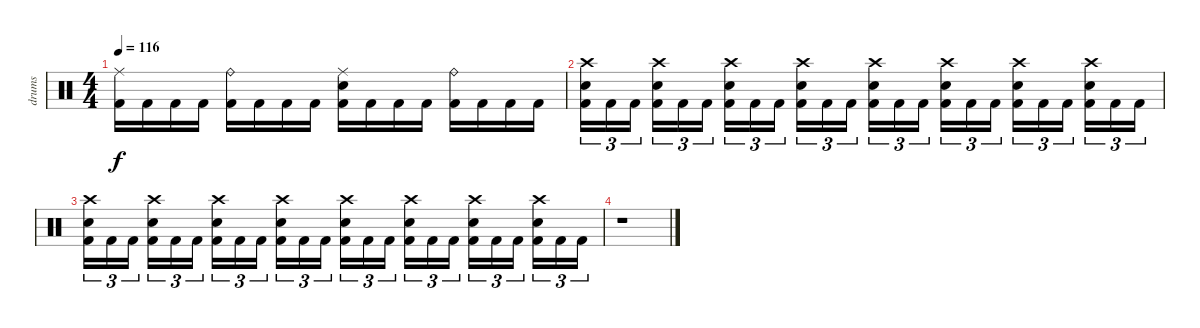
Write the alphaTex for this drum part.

\track ("drums" "drums") {instrument percussion}
\staff {score}
\articulation defaults
\ts (4 4)
\tempo 116
\clef neutral
\ks c
("Ride (middle)" "Kick (hit) 2").16{dy f} "Kick (hit) 2".16 "Kick (hit) 2".16 "Kick (hit) 2".16 ("Ride (bell)" "Kick (hit) 2").16 "Kick (hit) 2".16 "Kick (hit) 2".16 "Kick (hit) 2".16 ("Ride (middle)" "Snare (hit) 2" "Kick (hit) 2").16 "Kick (hit) 2".16 "Kick (hit) 2".16 "Kick (hit) 2".16 ("Ride (bell)" "Kick (hit) 2").16 "Kick (hit) 2".16 "Kick (hit) 2".16 "Kick (hit) 2".16 |
("Crash high (hit)" "Snare (hit) 2" "Kick (hit) 2").16{tu (3 2)} "Kick (hit) 2".16{tu (3 2)} "Kick (hit) 2".16{tu (3 2) beam splitsecondary} ("Crash high (hit)" "Snare (hit) 2" "Kick (hit) 2").16{tu (3 2)} "Kick (hit) 2".16{tu (3 2)} "Kick (hit) 2".16{tu (3 2)} ("Crash high (hit)" "Snare (hit) 2" "Kick (hit) 2").16{tu (3 2)} "Kick (hit) 2".16{tu (3 2)} "Kick (hit) 2".16{tu (3 2) beam splitsecondary} ("Crash high (hit)" "Snare (hit) 2" "Kick (hit) 2").16{tu (3 2)} "Kick (hit) 2".16{tu (3 2)} "Kick (hit) 2".16{tu (3 2)} ("Crash high (hit)" "Snare (hit) 2" "Kick (hit) 2").16{tu (3 2)} "Kick (hit) 2".16{tu (3 2)} "Kick (hit) 2".16{tu (3 2) beam splitsecondary} ("Crash high (hit)" "Snare (hit) 2" "Kick (hit) 2").16{tu (3 2)} "Kick (hit) 2".16{tu (3 2)} "Kick (hit) 2".16{tu (3 2)} ("Crash high (hit)" "Snare (hit) 2" "Kick (hit) 2").16{tu (3 2)} "Kick (hit) 2".16{tu (3 2)} "Kick (hit) 2".16{tu (3 2) beam splitsecondary} ("Crash high (hit)" "Snare (hit) 2" "Kick (hit) 2").16{tu (3 2)} "Kick (hit) 2".16{tu (3 2)} "Kick (hit) 2".16{tu (3 2)} |
("Crash high (hit)" "Snare (hit) 2" "Kick (hit) 2").16{tu (3 2)} "Kick (hit) 2".16{tu (3 2)} "Kick (hit) 2".16{tu (3 2) beam splitsecondary} ("Crash high (hit)" "Snare (hit) 2" "Kick (hit) 2").16{tu (3 2)} "Kick (hit) 2".16{tu (3 2)} "Kick (hit) 2".16{tu (3 2)} ("Crash high (hit)" "Snare (hit) 2" "Kick (hit) 2").16{tu (3 2)} "Kick (hit) 2".16{tu (3 2)} "Kick (hit) 2".16{tu (3 2) beam splitsecondary} ("Crash high (hit)" "Snare (hit) 2" "Kick (hit) 2").16{tu (3 2)} "Kick (hit) 2".16{tu (3 2)} "Kick (hit) 2".16{tu (3 2)} ("Crash high (hit)" "Snare (hit) 2" "Kick (hit) 2").16{tu (3 2)} "Kick (hit) 2".16{tu (3 2)} "Kick (hit) 2".16{tu (3 2) beam splitsecondary} ("Crash high (hit)" "Snare (hit) 2" "Kick (hit) 2").16{tu (3 2)} "Kick (hit) 2".16{tu (3 2)} "Kick (hit) 2".16{tu (3 2)} ("Crash high (hit)" "Snare (hit) 2" "Kick (hit) 2").16{tu (3 2)} "Kick (hit) 2".16{tu (3 2)} "Kick (hit) 2".16{tu (3 2) beam splitsecondary} ("Crash high (hit)" "Snare (hit) 2" "Kick (hit) 2").16{tu (3 2)} "Kick (hit) 2".16{tu (3 2)} "Kick (hit) 2".16{tu (3 2)} |
r.1
